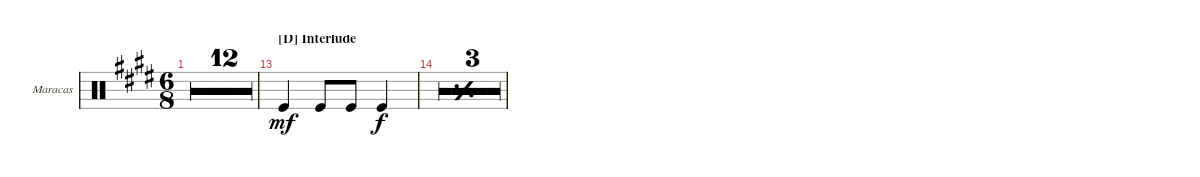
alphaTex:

\defaultSystemsLayout 4
\bracketExtendMode groupsimilarinstruments
\firstSystemTrackNameOrientation horizontal
\otherSystemsTrackNameOrientation horizontal
\track ("Maracas" "Maracas") {multiBarRest instrument percussion}
\staff {score}
\articulation defaults
\ts (6 8)
\tempo 162
\clef neutral
\ks e
r.2{d dy f} |
r.2{d} |
r.2{d} |
\ts (3 4)
r.2{d} |
\ts (6 8)
r.2{d} |
r.2{d} |
r.2{d} |
\ts (3 4)
r.2{d} |
\ts (6 8)
r.2{d} |
r.2{d} |
r.2{d} |
\ts (3 4)
r.2{d} |
\section ("D" "Interlude")
"Kick (hit)".4{dy mf} "Kick (hit)".8 "Kick (hit)".8 "Kick (hit)".4{dy f} |
\tempo 162
\simile simple
|
\simile firstofdouble
|
\simile secondofdouble
